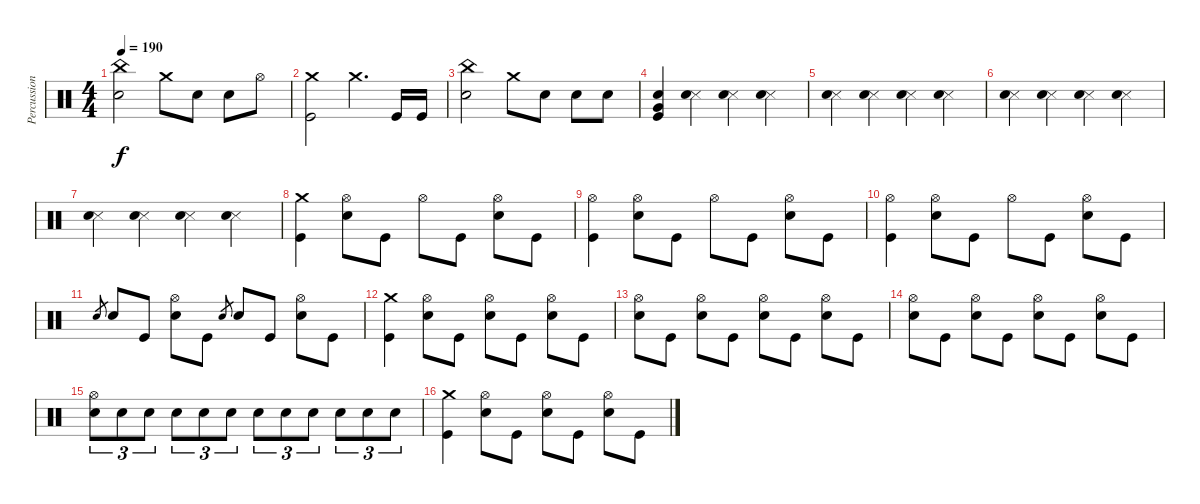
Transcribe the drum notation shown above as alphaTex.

\track ("Percussion" "Percussion") {instrument percussion}
\staff {score}
\articulation defaults
\ts (4 4)
\tempo 190
\clef neutral
\ks c
("China (hit)" "Snare (hit) 2").2{dy f} "Crash medium (hit)".8 "Snare (hit) 2".8 "Snare (hit) 2".8 "Hi-Hat (open)".8 |
("Crash medium (hit)" "Kick (hit)").2 "Crash medium (hit)".4{d} "Kick (hit)".16 "Kick (hit)".16 |
("China (hit)" "Snare (hit) 2").2 "Crash medium (hit)".8 "Snare (hit) 2".8 "Snare (hit) 2".8 "Snare (hit) 2".8 |
("Very Low Tom (hit)" "Snare (hit) 2" "Kick (hit)").4 ("Metronome (hit)" "Hand Clap (hit)").4 ("Metronome (hit)" "Hand Clap (hit)").4 ("Metronome (hit)" "Hand Clap (hit)").4 |
("Metronome (hit)" "Hand Clap (hit)").4 ("Metronome (hit)" "Hand Clap (hit)").4 ("Metronome (hit)" "Hand Clap (hit)").4 ("Metronome (hit)" "Hand Clap (hit)").4 |
("Metronome (hit)" "Hand Clap (hit)").4 ("Metronome (hit)" "Hand Clap (hit)").4 ("Metronome (hit)" "Hand Clap (hit)").4 ("Metronome (hit)" "Hand Clap (hit)").4 |
("Metronome (hit)" "Hand Clap (hit)").4 ("Metronome (hit)" "Hand Clap (hit)").4 ("Metronome (hit)" "Hand Clap (hit)").4 ("Metronome (hit)" "Hand Clap (hit)").4 |
("Crash medium (hit)" "Kick (hit)").4 ("Hi-Hat (open)" "Snare (hit) 2").8 "Kick (hit)".8 "Hi-Hat (open)".8 "Kick (hit)".8 ("Hi-Hat (open)" "Snare (hit) 2").8 "Kick (hit)".8 |
("Hi-Hat (open)" "Kick (hit)").4 ("Hi-Hat (open)" "Snare (hit) 2").8 "Kick (hit)".8 "Hi-Hat (open)".8 "Kick (hit)".8 ("Hi-Hat (open)" "Snare (hit) 2").8 "Kick (hit)".8 |
("Hi-Hat (open)" "Kick (hit)").4 ("Hi-Hat (open)" "Snare (hit) 2").8 "Kick (hit)".8 "Hi-Hat (open)".8 "Kick (hit)".8 ("Hi-Hat (open)" "Snare (hit) 2").8 "Kick (hit)".8 |
"Snare (hit) 2".8{gr} "Snare (hit) 2".8 "Kick (hit)".8 ("Hi-Hat (open)" "Snare (hit) 2").8 "Kick (hit)".8 "Snare (hit) 2".8{gr} "Snare (hit) 2".8 "Kick (hit)".8 ("Hi-Hat (open)" "Snare (hit) 2").8 "Kick (hit)".8 |
("Crash medium (hit)" "Kick (hit)").4 ("Hi-Hat (open)" "Snare (hit) 2").8 "Kick (hit)".8 ("Hi-Hat (open)" "Snare (hit) 2").8 "Kick (hit)".8 ("Hi-Hat (open)" "Snare (hit) 2").8 "Kick (hit)".8 |
("Hi-Hat (open)" "Snare (hit) 2").8 "Kick (hit)".8 ("Hi-Hat (open)" "Snare (hit) 2").8 "Kick (hit)".8 ("Hi-Hat (open)" "Snare (hit) 2").8 "Kick (hit)".8 ("Hi-Hat (open)" "Snare (hit) 2").8 "Kick (hit)".8 |
("Hi-Hat (open)" "Snare (hit) 2").8 "Kick (hit)".8 ("Hi-Hat (open)" "Snare (hit) 2").8 "Kick (hit)".8 ("Hi-Hat (open)" "Snare (hit) 2").8 "Kick (hit)".8 ("Hi-Hat (open)" "Snare (hit) 2").8 "Kick (hit)".8 |
("Hi-Hat (open)" "Snare (hit) 2").8{tu (3 2)} "Snare (hit) 2".8{tu (3 2)} "Snare (hit) 2".8{tu (3 2)} "Snare (hit) 2".8{tu (3 2)} "Snare (hit) 2".8{tu (3 2)} "Snare (hit) 2".8{tu (3 2)} "Snare (hit) 2".8{tu (3 2)} "Snare (hit) 2".8{tu (3 2)} "Snare (hit) 2".8{tu (3 2)} "Snare (hit) 2".8{tu (3 2)} "Snare (hit) 2".8{tu (3 2)} "Snare (hit) 2".8{tu (3 2)} |
("Crash medium (hit)" "Kick (hit)").4 ("Hi-Hat (open)" "Snare (hit) 2").8 "Kick (hit)".8 ("Hi-Hat (open)" "Snare (hit) 2").8 "Kick (hit)".8 ("Hi-Hat (open)" "Snare (hit) 2").8 "Kick (hit)".8
